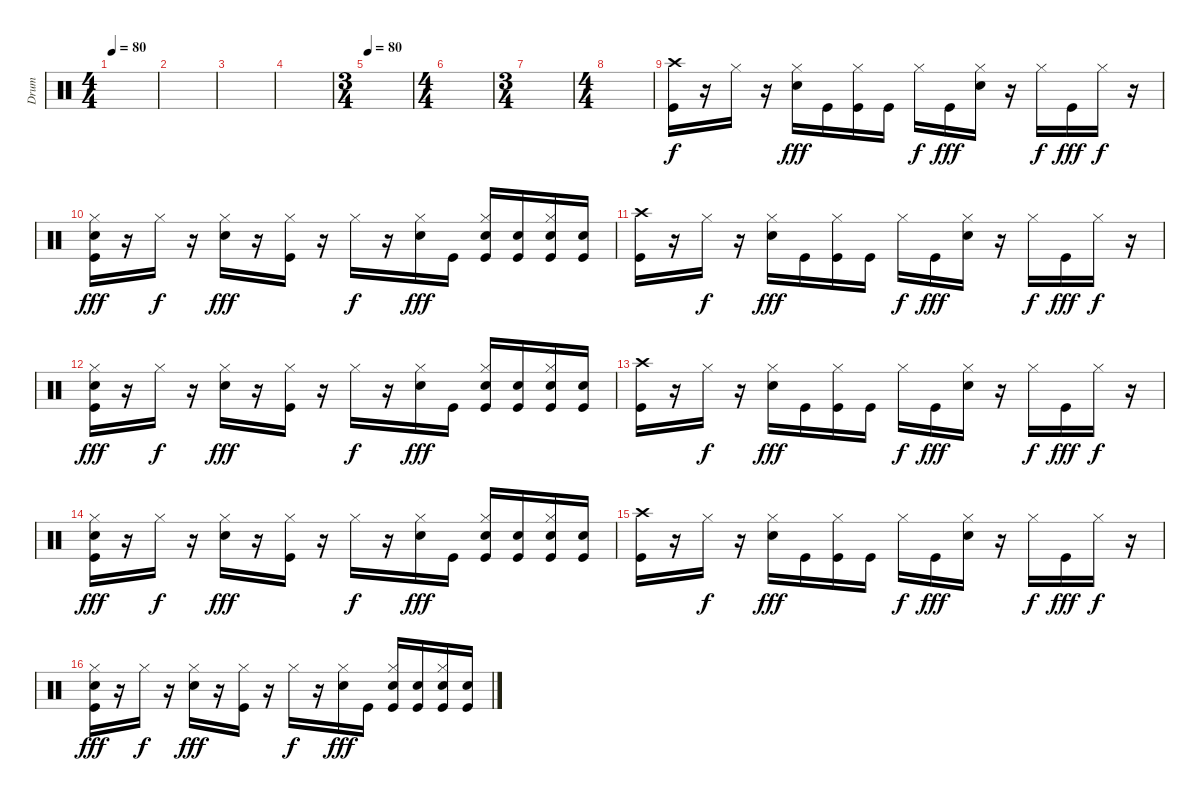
\track ("Drum" "Drum") {instrument percussion}
\staff {score}
\articulation defaults
\ts (4 4)
\tempo 80
\tempo 72
\tempo 80
\clef neutral
\ks c
|
|
|
|
\ts (3 4)
\tempo 80
|
\ts (4 4)
|
\ts (3 4)
|
\ts (4 4)
|
("Crash high (hit)" "Kick (hit)").16 r.16 "Hi-Hat (closed)".16{dy f} r.16 ("Hi-Hat (closed)" "Electric Snare (hit)").16{dy fff} "Kick (hit)".16 ("Hi-Hat (closed)" "Kick (hit)").16 "Kick (hit)".16 "Hi-Hat (closed)".16{dy f} "Kick (hit)".16{dy fff} ("Hi-Hat (closed)" "Electric Snare (hit)").16 r.16 "Hi-Hat (closed)".16{dy f} "Kick (hit)".16{dy fff} "Hi-Hat (closed)".16{dy f} r.16 |
("Hi-Hat (closed)" "Electric Snare (hit)" "Kick (hit)").16{dy fff} r.16 "Hi-Hat (closed)".16{dy f} r.16 ("Hi-Hat (closed)" "Electric Snare (hit)").16{dy fff} r.16 ("Hi-Hat (closed)" "Kick (hit)").16 r.16 "Hi-Hat (closed)".16{dy f} r.16 ("Hi-Hat (closed)" "Electric Snare (hit)").16{dy fff} "Kick (hit)".16 ("Hi-Hat (closed)" "Electric Snare (hit)" "Kick (hit)").16 ("Electric Snare (hit)" "Kick (hit)").16 ("Hi-Hat (closed)" "Electric Snare (hit)" "Kick (hit)").16 ("Electric Snare (hit)" "Kick (hit)").16 |
("Crash high (hit)" "Kick (hit)").16 r.16 "Hi-Hat (closed)".16{dy f} r.16 ("Hi-Hat (closed)" "Electric Snare (hit)").16{dy fff} "Kick (hit)".16 ("Hi-Hat (closed)" "Kick (hit)").16 "Kick (hit)".16 "Hi-Hat (closed)".16{dy f} "Kick (hit)".16{dy fff} ("Hi-Hat (closed)" "Electric Snare (hit)").16 r.16 "Hi-Hat (closed)".16{dy f} "Kick (hit)".16{dy fff} "Hi-Hat (closed)".16{dy f} r.16 |
("Hi-Hat (closed)" "Electric Snare (hit)" "Kick (hit)").16{dy fff} r.16 "Hi-Hat (closed)".16{dy f} r.16 ("Hi-Hat (closed)" "Electric Snare (hit)").16{dy fff} r.16 ("Hi-Hat (closed)" "Kick (hit)").16 r.16 "Hi-Hat (closed)".16{dy f} r.16 ("Hi-Hat (closed)" "Electric Snare (hit)").16{dy fff} "Kick (hit)".16 ("Hi-Hat (closed)" "Electric Snare (hit)" "Kick (hit)").16 ("Electric Snare (hit)" "Kick (hit)").16 ("Hi-Hat (closed)" "Electric Snare (hit)" "Kick (hit)").16 ("Electric Snare (hit)" "Kick (hit)").16 |
("Crash high (hit)" "Kick (hit)").16 r.16 "Hi-Hat (closed)".16{dy f} r.16 ("Hi-Hat (closed)" "Electric Snare (hit)").16{dy fff} "Kick (hit)".16 ("Hi-Hat (closed)" "Kick (hit)").16 "Kick (hit)".16 "Hi-Hat (closed)".16{dy f} "Kick (hit)".16{dy fff} ("Hi-Hat (closed)" "Electric Snare (hit)").16 r.16 "Hi-Hat (closed)".16{dy f} "Kick (hit)".16{dy fff} "Hi-Hat (closed)".16{dy f} r.16 |
("Hi-Hat (closed)" "Electric Snare (hit)" "Kick (hit)").16{dy fff} r.16 "Hi-Hat (closed)".16{dy f} r.16 ("Hi-Hat (closed)" "Electric Snare (hit)").16{dy fff} r.16 ("Hi-Hat (closed)" "Kick (hit)").16 r.16 "Hi-Hat (closed)".16{dy f} r.16 ("Hi-Hat (closed)" "Electric Snare (hit)").16{dy fff} "Kick (hit)".16 ("Hi-Hat (closed)" "Electric Snare (hit)" "Kick (hit)").16 ("Electric Snare (hit)" "Kick (hit)").16 ("Hi-Hat (closed)" "Electric Snare (hit)" "Kick (hit)").16 ("Electric Snare (hit)" "Kick (hit)").16 |
("Crash high (hit)" "Kick (hit)").16 r.16 "Hi-Hat (closed)".16{dy f} r.16 ("Hi-Hat (closed)" "Electric Snare (hit)").16{dy fff} "Kick (hit)".16 ("Hi-Hat (closed)" "Kick (hit)").16 "Kick (hit)".16 "Hi-Hat (closed)".16{dy f} "Kick (hit)".16{dy fff} ("Hi-Hat (closed)" "Electric Snare (hit)").16 r.16 "Hi-Hat (closed)".16{dy f} "Kick (hit)".16{dy fff} "Hi-Hat (closed)".16{dy f} r.16 |
("Hi-Hat (closed)" "Electric Snare (hit)" "Kick (hit)").16{dy fff} r.16 "Hi-Hat (closed)".16{dy f} r.16 ("Hi-Hat (closed)" "Electric Snare (hit)").16{dy fff} r.16 ("Hi-Hat (closed)" "Kick (hit)").16 r.16 "Hi-Hat (closed)".16{dy f} r.16 ("Hi-Hat (closed)" "Electric Snare (hit)").16{dy fff} "Kick (hit)".16 ("Hi-Hat (closed)" "Electric Snare (hit)" "Kick (hit)").16 ("Electric Snare (hit)" "Kick (hit)").16 ("Hi-Hat (closed)" "Electric Snare (hit)" "Kick (hit)").16 ("Electric Snare (hit)" "Kick (hit)").16
